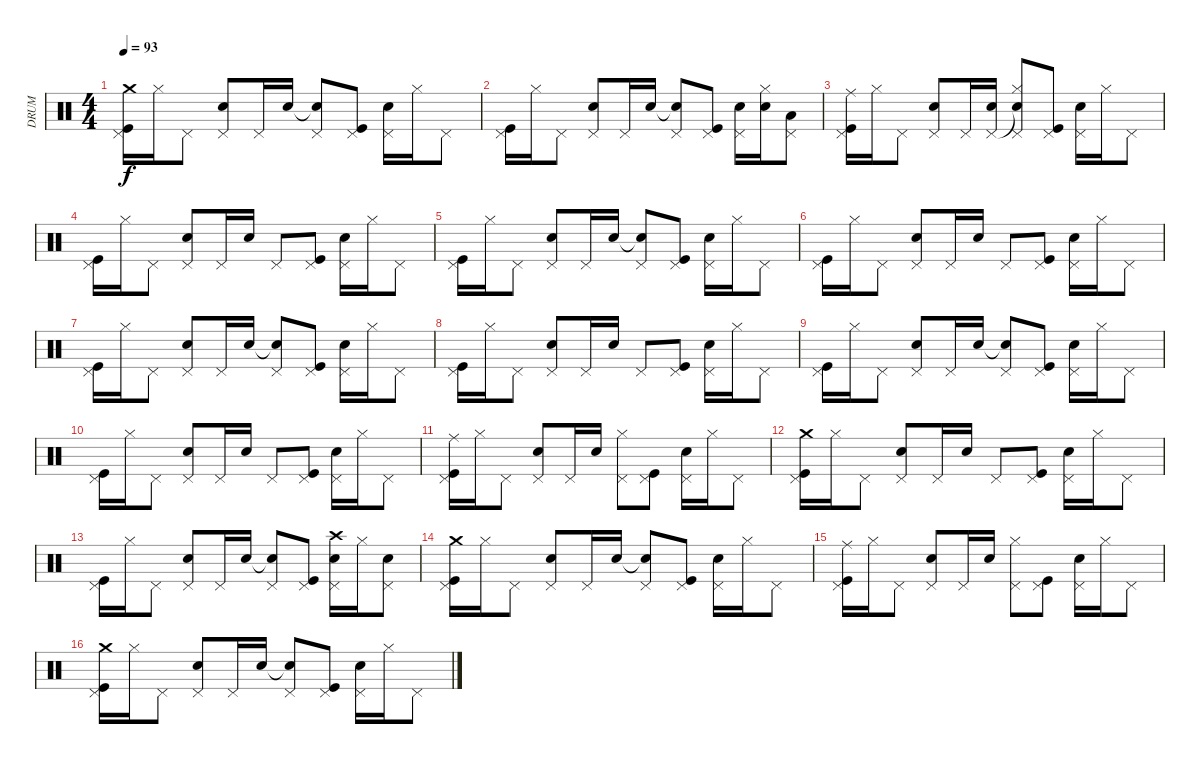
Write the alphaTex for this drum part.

\track ("DRUM" "DRUM") {instrument percussion}
\staff {score}
\articulation defaults
\ts (4 4)
\tempo 93
\clef neutral
\ks c
("Crash medium (hit)" "Kick (hit)" "Pedal Hi-Hat (hit)").16{dy f} "Hi-Hat (closed)".16 "Pedal Hi-Hat (hit)".8 ("Snare (hit) 2" "Pedal Hi-Hat (hit)").8 "Pedal Hi-Hat (hit)".16 "Snare (hit) 2".16 ("Snare (hit) 2"{t} "Pedal Hi-Hat (hit)").8 ("Kick (hit)" "Pedal Hi-Hat (hit)").8 ("Snare (hit) 2" "Pedal Hi-Hat (hit)").16 "Hi-Hat (closed)".16 "Pedal Hi-Hat (hit)".8 |
("Kick (hit)" "Pedal Hi-Hat (hit)").16 "Hi-Hat (closed)".16 "Pedal Hi-Hat (hit)".8 ("Snare (hit) 2" "Pedal Hi-Hat (hit)").8 "Pedal Hi-Hat (hit)".16 "Snare (hit) 2".16 ("Snare (hit) 2"{t} "Pedal Hi-Hat (hit)").8 ("Kick (hit)" "Pedal Hi-Hat (hit)").8 ("Snare (hit) 2" "Pedal Hi-Hat (hit)").16 ("Hi-Hat (closed)" "Snare (hit) 2").16 ("Low Tom (hit)" "Pedal Hi-Hat (hit)").8 |
("Ride (middle)" "Kick (hit)" "Pedal Hi-Hat (hit)").16 "Hi-Hat (closed)".16 "Pedal Hi-Hat (hit)".8 ("Snare (hit) 2" "Pedal Hi-Hat (hit)").8 "Pedal Hi-Hat (hit)".16 ("Snare (hit) 2" "Pedal Hi-Hat (hit)").16 ("Hi-Hat (closed)" "Snare (hit) 2"{t} "Pedal Hi-Hat (hit)").8 ("Kick (hit)" "Pedal Hi-Hat (hit)").8 ("Snare (hit) 2" "Pedal Hi-Hat (hit)").16 "Hi-Hat (closed)".16 "Pedal Hi-Hat (hit)".8 |
("Kick (hit)" "Pedal Hi-Hat (hit)").16 "Hi-Hat (closed)".16 "Pedal Hi-Hat (hit)".8 ("Snare (hit) 2" "Pedal Hi-Hat (hit)").8 "Pedal Hi-Hat (hit)".16 "Snare (hit) 2".16 "Pedal Hi-Hat (hit)".8 ("Kick (hit)" "Pedal Hi-Hat (hit)").8 ("Snare (hit) 2" "Pedal Hi-Hat (hit)").16 "Hi-Hat (closed)".16 "Pedal Hi-Hat (hit)".8 |
("Kick (hit)" "Pedal Hi-Hat (hit)").16 "Hi-Hat (closed)".16 "Pedal Hi-Hat (hit)".8 ("Snare (hit) 2" "Pedal Hi-Hat (hit)").8 "Pedal Hi-Hat (hit)".16 "Snare (hit) 2".16 ("Snare (hit) 2"{t} "Pedal Hi-Hat (hit)").8 ("Kick (hit)" "Pedal Hi-Hat (hit)").8 ("Snare (hit) 2" "Pedal Hi-Hat (hit)").16 "Hi-Hat (closed)".16 "Pedal Hi-Hat (hit)".8 |
("Kick (hit)" "Pedal Hi-Hat (hit)").16 "Hi-Hat (closed)".16 "Pedal Hi-Hat (hit)".8 ("Snare (hit) 2" "Pedal Hi-Hat (hit)").8 "Pedal Hi-Hat (hit)".16 "Snare (hit) 2".16 "Pedal Hi-Hat (hit)".8 ("Kick (hit)" "Pedal Hi-Hat (hit)").8 ("Snare (hit) 2" "Pedal Hi-Hat (hit)").16 "Hi-Hat (closed)".16 "Pedal Hi-Hat (hit)".8 |
("Kick (hit)" "Pedal Hi-Hat (hit)").16 "Hi-Hat (closed)".16 "Pedal Hi-Hat (hit)".8 ("Snare (hit) 2" "Pedal Hi-Hat (hit)").8 "Pedal Hi-Hat (hit)".16 "Snare (hit) 2".16 ("Snare (hit) 2"{t} "Pedal Hi-Hat (hit)").8 ("Kick (hit)" "Pedal Hi-Hat (hit)").8 ("Snare (hit) 2" "Pedal Hi-Hat (hit)").16 "Hi-Hat (closed)".16 "Pedal Hi-Hat (hit)".8 |
("Kick (hit)" "Pedal Hi-Hat (hit)").16 "Hi-Hat (closed)".16 "Pedal Hi-Hat (hit)".8 ("Snare (hit) 2" "Pedal Hi-Hat (hit)").8 "Pedal Hi-Hat (hit)".16 "Snare (hit) 2".16 "Pedal Hi-Hat (hit)".8 ("Kick (hit)" "Pedal Hi-Hat (hit)").8 ("Snare (hit) 2" "Pedal Hi-Hat (hit)").16 "Hi-Hat (closed)".16 "Pedal Hi-Hat (hit)".8 |
("Kick (hit)" "Pedal Hi-Hat (hit)").16 "Hi-Hat (closed)".16 "Pedal Hi-Hat (hit)".8 ("Snare (hit) 2" "Pedal Hi-Hat (hit)").8 "Pedal Hi-Hat (hit)".16 "Snare (hit) 2".16 ("Snare (hit) 2"{t} "Pedal Hi-Hat (hit)").8 ("Kick (hit)" "Pedal Hi-Hat (hit)").8 ("Snare (hit) 2" "Pedal Hi-Hat (hit)").16 "Hi-Hat (closed)".16 "Pedal Hi-Hat (hit)".8 |
("Kick (hit)" "Pedal Hi-Hat (hit)").16 "Hi-Hat (closed)".16 "Pedal Hi-Hat (hit)".8 ("Snare (hit) 2" "Pedal Hi-Hat (hit)").8 "Pedal Hi-Hat (hit)".16 "Snare (hit) 2".16 "Pedal Hi-Hat (hit)".8 ("Kick (hit)" "Pedal Hi-Hat (hit)").8 ("Snare (hit) 2" "Pedal Hi-Hat (hit)").16 "Hi-Hat (closed)".16 "Pedal Hi-Hat (hit)".8 |
("Ride (middle)" "Kick (hit)" "Pedal Hi-Hat (hit)").16 "Hi-Hat (closed)".16 "Pedal Hi-Hat (hit)".8 ("Snare (hit) 2" "Pedal Hi-Hat (hit)").8 "Pedal Hi-Hat (hit)".16 "Snare (hit) 2".16 ("Hi-Hat (closed)" "Pedal Hi-Hat (hit)").8 ("Kick (hit)" "Pedal Hi-Hat (hit)").8 ("Snare (hit) 2" "Pedal Hi-Hat (hit)").16 "Hi-Hat (closed)".16 "Pedal Hi-Hat (hit)".8 |
("Crash medium (hit)" "Kick (hit)" "Pedal Hi-Hat (hit)").16 "Hi-Hat (closed)".16 "Pedal Hi-Hat (hit)".8 ("Snare (hit) 2" "Pedal Hi-Hat (hit)").8 "Pedal Hi-Hat (hit)".16 "Snare (hit) 2".16 "Pedal Hi-Hat (hit)".8 ("Kick (hit)" "Pedal Hi-Hat (hit)").8 ("Snare (hit) 2" "Pedal Hi-Hat (hit)").16 "Hi-Hat (closed)".16 "Pedal Hi-Hat (hit)".8 |
("Kick (hit)" "Pedal Hi-Hat (hit)").16 "Hi-Hat (closed)".16 "Pedal Hi-Hat (hit)".8 ("Snare (hit) 2" "Pedal Hi-Hat (hit)").8 "Pedal Hi-Hat (hit)".16 "Snare (hit) 2".16 ("Snare (hit) 2"{t} "Pedal Hi-Hat (hit)").8 ("Kick (hit)" "Pedal Hi-Hat (hit)").8 ("Crash high (hit)" "Snare (hit) 2" "Pedal Hi-Hat (hit)").16 "Hi-Hat (closed)".16 ("Snare (hit) 2" "Pedal Hi-Hat (hit)").8 |
("Crash medium (hit)" "Kick (hit)" "Pedal Hi-Hat (hit)").16 "Hi-Hat (closed)".16 "Pedal Hi-Hat (hit)".8 ("Snare (hit) 2" "Pedal Hi-Hat (hit)").8 "Pedal Hi-Hat (hit)".16 "Snare (hit) 2".16 ("Snare (hit) 2"{t} "Pedal Hi-Hat (hit)").8 ("Kick (hit)" "Pedal Hi-Hat (hit)").8 ("Snare (hit) 2" "Pedal Hi-Hat (hit)").16 "Hi-Hat (closed)".16 "Pedal Hi-Hat (hit)".8 |
("Ride (middle)" "Kick (hit)" "Pedal Hi-Hat (hit)").16 "Hi-Hat (closed)".16 "Pedal Hi-Hat (hit)".8 ("Snare (hit) 2" "Pedal Hi-Hat (hit)").8 "Pedal Hi-Hat (hit)".16 "Snare (hit) 2".16 ("Hi-Hat (closed)" "Pedal Hi-Hat (hit)").8 ("Kick (hit)" "Pedal Hi-Hat (hit)").8 ("Snare (hit) 2" "Pedal Hi-Hat (hit)").16 "Hi-Hat (closed)".16 "Pedal Hi-Hat (hit)".8 |
("Crash medium (hit)" "Kick (hit)" "Pedal Hi-Hat (hit)").16 "Hi-Hat (closed)".16 "Pedal Hi-Hat (hit)".8 ("Snare (hit) 2" "Pedal Hi-Hat (hit)").8 "Pedal Hi-Hat (hit)".16 "Snare (hit) 2".16 ("Snare (hit) 2"{t} "Pedal Hi-Hat (hit)").8 ("Kick (hit)" "Pedal Hi-Hat (hit)").8 ("Snare (hit) 2" "Pedal Hi-Hat (hit)").16 "Hi-Hat (closed)".16 "Pedal Hi-Hat (hit)".8
